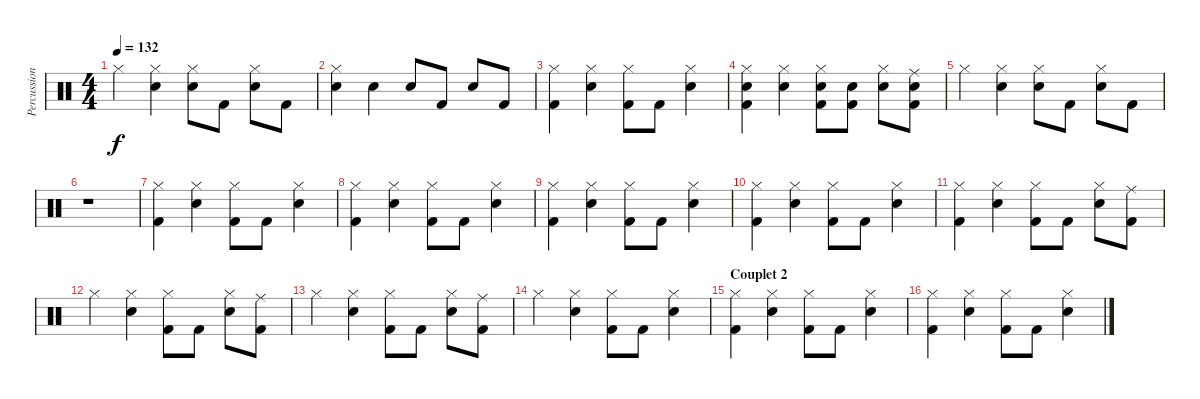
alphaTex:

\track ("Percussions" "Percussion") {instrument percussion}
\staff {score}
\articulation defaults
\ts (4 4)
\tempo 132
\clef neutral
\ks c "Hi-Hat (closed)".4{dy f}
("Hi-Hat (closed)" "Snare (hit) 2").4 ("Hi-Hat (closed)" "Snare (hit) 2").8 "Kick (hit) 2".8 ("Hi-Hat (closed)" "Snare (hit) 2").8 "Kick (hit) 2".8 |
("Hi-Hat (closed)" "Snare (hit) 2").4 "Snare (hit) 2".4 "Snare (hit) 2".8 "Kick (hit) 2".8 "Snare (hit) 2".8 "Kick (hit) 2".8 |
("Hi-Hat (closed)" "Kick (hit) 2").4 ("Hi-Hat (closed)" "Snare (hit) 2").4 ("Hi-Hat (closed)" "Kick (hit) 2").8 "Kick (hit) 2".8 ("Hi-Hat (closed)" "Snare (hit) 2").4 |
("Hi-Hat (closed)" "Snare (hit) 2" "Kick (hit) 2").4 ("Hi-Hat (closed)" "Snare (hit) 2").4 ("Hi-Hat (closed)" "Snare (hit) 2" "Kick (hit) 2").8 ("Snare (hit) 2" "Kick (hit) 2").8 ("Hi-Hat (closed)" "Snare (hit) 2").8 ("Ride (middle)" "Snare (hit) 2" "Kick (hit) 2").8 |
"Hi-Hat (closed)".4 ("Hi-Hat (closed)" "Snare (hit) 2").4 ("Hi-Hat (closed)" "Snare (hit) 2").8 "Kick (hit) 2".8 ("Hi-Hat (closed)" "Snare (hit) 2").8 "Kick (hit) 2".8 |
r.1 |
("Hi-Hat (closed)" "Kick (hit) 2").4 ("Hi-Hat (closed)" "Snare (hit) 2").4 ("Hi-Hat (closed)" "Kick (hit) 2").8 "Kick (hit) 2".8 ("Hi-Hat (closed)" "Snare (hit) 2").4 |
("Hi-Hat (closed)" "Kick (hit) 2").4 ("Hi-Hat (closed)" "Snare (hit) 2").4 ("Hi-Hat (closed)" "Kick (hit) 2").8 "Kick (hit) 2".8 ("Hi-Hat (closed)" "Snare (hit) 2").4 |
("Hi-Hat (closed)" "Kick (hit) 2").4 ("Hi-Hat (closed)" "Snare (hit) 2").4 ("Hi-Hat (closed)" "Kick (hit) 2").8 "Kick (hit) 2".8 ("Hi-Hat (closed)" "Snare (hit) 2").4 |
("Hi-Hat (closed)" "Kick (hit) 2").4 ("Hi-Hat (closed)" "Snare (hit) 2").4 ("Hi-Hat (closed)" "Kick (hit) 2").8 "Kick (hit) 2".8 ("Hi-Hat (closed)" "Snare (hit) 2").4 |
("Hi-Hat (closed)" "Kick (hit) 2").4 ("Hi-Hat (closed)" "Snare (hit) 2").4 ("Hi-Hat (closed)" "Kick (hit) 2").8 "Kick (hit) 2".8 ("Hi-Hat (closed)" "Snare (hit) 2").8 ("Ride (middle)" "Kick (hit) 2").8 |
"Hi-Hat (closed)".4 ("Hi-Hat (closed)" "Snare (hit) 2").4 ("Hi-Hat (closed)" "Kick (hit) 2").8 "Kick (hit) 2".8 ("Hi-Hat (closed)" "Snare (hit) 2").8 ("Ride (middle)" "Kick (hit) 2").8 |
"Hi-Hat (closed)".4 ("Hi-Hat (closed)" "Snare (hit) 2").4 ("Hi-Hat (closed)" "Kick (hit) 2").8 "Kick (hit) 2".8 ("Hi-Hat (closed)" "Snare (hit) 2").8 ("Ride (middle)" "Kick (hit) 2").8 |
"Hi-Hat (closed)".4 ("Hi-Hat (closed)" "Snare (hit) 2").4 ("Hi-Hat (closed)" "Kick (hit) 2").8 "Kick (hit) 2".8 ("Hi-Hat (closed)" "Snare (hit) 2").4 |
\section ("" "Couplet 2")
("Hi-Hat (closed)" "Kick (hit) 2").4 ("Hi-Hat (closed)" "Snare (hit) 2").4 ("Hi-Hat (closed)" "Kick (hit) 2").8 "Kick (hit) 2".8 ("Hi-Hat (closed)" "Snare (hit) 2").4 |
("Hi-Hat (closed)" "Kick (hit) 2").4 ("Hi-Hat (closed)" "Snare (hit) 2").4 ("Hi-Hat (closed)" "Kick (hit) 2").8 "Kick (hit) 2".8 ("Hi-Hat (closed)" "Snare (hit) 2").4
